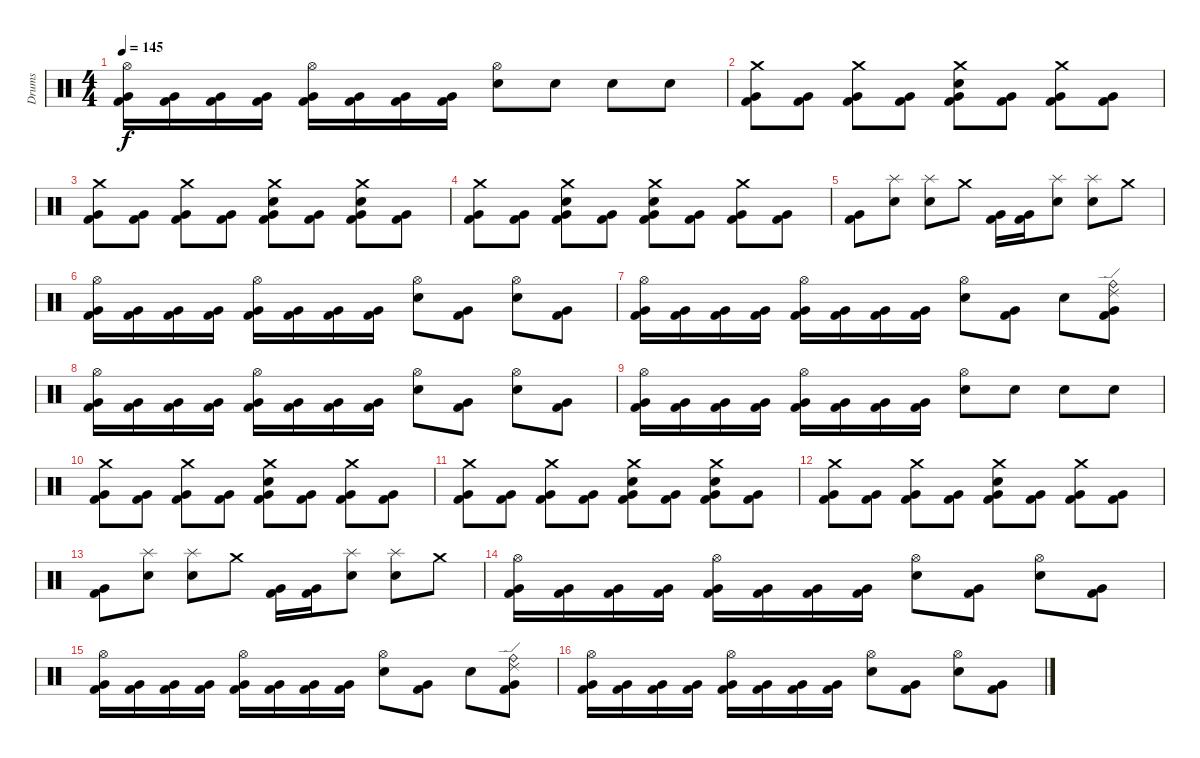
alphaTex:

\track ("Drums" "Drums") {instrument percussion}
\staff {score}
\articulation defaults
\ts (4 4)
\tempo 145
\clef neutral
\ks c
("Hi-Hat (open)" "Very Low Tom (hit)" "Kick (hit) 2").16{dy f} ("Very Low Tom (hit)" "Kick (hit) 2").16 ("Very Low Tom (hit)" "Kick (hit) 2").16 ("Very Low Tom (hit)" "Kick (hit) 2").16 ("Hi-Hat (open)" "Very Low Tom (hit)" "Kick (hit) 2").16 ("Very Low Tom (hit)" "Kick (hit) 2").16 ("Very Low Tom (hit)" "Kick (hit) 2").16 ("Very Low Tom (hit)" "Kick (hit) 2").16 ("Hi-Hat (open)" "Snare (hit) 2").8 "Snare (hit) 2".8 "Snare (hit) 2".8 "Snare (hit) 2".8 |
("Crash medium (hit)" "Very Low Tom (hit)" "Kick (hit) 2").8 ("Very Low Tom (hit)" "Kick (hit) 2").8 ("Crash medium (hit)" "Very Low Tom (hit)" "Kick (hit) 2").8 ("Very Low Tom (hit)" "Kick (hit) 2").8 ("Crash medium (hit)" "Snare (hit) 2" "Very Low Tom (hit)" "Kick (hit) 2").8 ("Very Low Tom (hit)" "Kick (hit) 2").8 ("Crash medium (hit)" "Very Low Tom (hit)" "Kick (hit) 2").8 ("Very Low Tom (hit)" "Kick (hit) 2").8 |
("Crash medium (hit)" "Very Low Tom (hit)" "Kick (hit) 2").8 ("Very Low Tom (hit)" "Kick (hit) 2").8 ("Crash medium (hit)" "Very Low Tom (hit)" "Kick (hit) 2").8 ("Very Low Tom (hit)" "Kick (hit) 2").8 ("Crash medium (hit)" "Snare (hit) 2" "Very Low Tom (hit)" "Kick (hit) 2").8 ("Very Low Tom (hit)" "Kick (hit) 2").8 ("Crash medium (hit)" "Snare (hit) 2" "Very Low Tom (hit)" "Kick (hit) 2").8 ("Very Low Tom (hit)" "Kick (hit) 2").8 |
("Crash medium (hit)" "Very Low Tom (hit)" "Kick (hit) 2").8 ("Very Low Tom (hit)" "Kick (hit) 2").8 ("Crash medium (hit)" "Snare (hit) 2" "Very Low Tom (hit)" "Kick (hit) 2").8 ("Very Low Tom (hit)" "Kick (hit) 2").8 ("Crash medium (hit)" "Snare (hit) 2" "Very Low Tom (hit)" "Kick (hit) 2").8 ("Very Low Tom (hit)" "Kick (hit) 2").8 ("Crash medium (hit)" "Very Low Tom (hit)" "Kick (hit) 2").8 ("Very Low Tom (hit)" "Kick (hit) 2").8 |
("Very Low Tom (hit)" "Kick (hit) 2").8 ("Splash (hit)" "Snare (hit) 2").8 ("Splash (hit)" "Snare (hit) 2").8 "Crash medium (hit)".8 ("Very Low Tom (hit)" "Kick (hit) 2").16 ("Very Low Tom (hit)" "Kick (hit) 2").16 ("Splash (hit)" "Snare (hit) 2").8 ("Splash (hit)" "Snare (hit) 2").8 "Crash medium (hit)".8 |
("Hi-Hat (open)" "Very Low Tom (hit)" "Kick (hit) 2").16 ("Very Low Tom (hit)" "Kick (hit) 2").16 ("Very Low Tom (hit)" "Kick (hit) 2").16 ("Very Low Tom (hit)" "Kick (hit) 2").16 ("Hi-Hat (open)" "Very Low Tom (hit)" "Kick (hit) 2").16 ("Very Low Tom (hit)" "Kick (hit) 2").16 ("Very Low Tom (hit)" "Kick (hit) 2").16 ("Very Low Tom (hit)" "Kick (hit) 2").16 ("Hi-Hat (open)" "Snare (hit) 2").8 ("Very Low Tom (hit)" "Kick (hit) 2").8 ("Hi-Hat (open)" "Snare (hit) 2").8 ("Very Low Tom (hit)" "Kick (hit) 2").8 |
("Hi-Hat (open)" "Very Low Tom (hit)" "Kick (hit) 2").16 ("Very Low Tom (hit)" "Kick (hit) 2").16 ("Very Low Tom (hit)" "Kick (hit) 2").16 ("Very Low Tom (hit)" "Kick (hit) 2").16 ("Hi-Hat (open)" "Very Low Tom (hit)" "Kick (hit) 2").16 ("Very Low Tom (hit)" "Kick (hit) 2").16 ("Very Low Tom (hit)" "Kick (hit) 2").16 ("Very Low Tom (hit)" "Kick (hit) 2").16 ("Hi-Hat (open)" "Snare (hit) 2").8 ("Very Low Tom (hit)" "Kick (hit) 2").8 "Snare (hit) 2".8 ("Ride (bell)" "Ride (edge) 2" "Very Low Tom (hit)" "Kick (hit) 2").8 |
("Hi-Hat (open)" "Very Low Tom (hit)" "Kick (hit) 2").16 ("Very Low Tom (hit)" "Kick (hit) 2").16 ("Very Low Tom (hit)" "Kick (hit) 2").16 ("Very Low Tom (hit)" "Kick (hit) 2").16 ("Hi-Hat (open)" "Very Low Tom (hit)" "Kick (hit) 2").16 ("Very Low Tom (hit)" "Kick (hit) 2").16 ("Very Low Tom (hit)" "Kick (hit) 2").16 ("Very Low Tom (hit)" "Kick (hit) 2").16 ("Hi-Hat (open)" "Snare (hit) 2").8 ("Very Low Tom (hit)" "Kick (hit) 2").8 ("Hi-Hat (open)" "Snare (hit) 2").8 ("Very Low Tom (hit)" "Kick (hit) 2").8 |
("Hi-Hat (open)" "Very Low Tom (hit)" "Kick (hit) 2").16 ("Very Low Tom (hit)" "Kick (hit) 2").16 ("Very Low Tom (hit)" "Kick (hit) 2").16 ("Very Low Tom (hit)" "Kick (hit) 2").16 ("Hi-Hat (open)" "Very Low Tom (hit)" "Kick (hit) 2").16 ("Very Low Tom (hit)" "Kick (hit) 2").16 ("Very Low Tom (hit)" "Kick (hit) 2").16 ("Very Low Tom (hit)" "Kick (hit) 2").16 ("Hi-Hat (open)" "Snare (hit) 2").8 "Snare (hit) 2".8 "Snare (hit) 2".8 "Snare (hit) 2".8 |
("Crash medium (hit)" "Very Low Tom (hit)" "Kick (hit) 2").8 ("Very Low Tom (hit)" "Kick (hit) 2").8 ("Crash medium (hit)" "Very Low Tom (hit)" "Kick (hit) 2").8 ("Very Low Tom (hit)" "Kick (hit) 2").8 ("Crash medium (hit)" "Snare (hit) 2" "Very Low Tom (hit)" "Kick (hit) 2").8 ("Very Low Tom (hit)" "Kick (hit) 2").8 ("Crash medium (hit)" "Very Low Tom (hit)" "Kick (hit) 2").8 ("Very Low Tom (hit)" "Kick (hit) 2").8 |
("Crash medium (hit)" "Very Low Tom (hit)" "Kick (hit) 2").8 ("Very Low Tom (hit)" "Kick (hit) 2").8 ("Crash medium (hit)" "Very Low Tom (hit)" "Kick (hit) 2").8 ("Very Low Tom (hit)" "Kick (hit) 2").8 ("Crash medium (hit)" "Snare (hit) 2" "Very Low Tom (hit)" "Kick (hit) 2").8 ("Very Low Tom (hit)" "Kick (hit) 2").8 ("Crash medium (hit)" "Snare (hit) 2" "Very Low Tom (hit)" "Kick (hit) 2").8 ("Very Low Tom (hit)" "Kick (hit) 2").8 |
("Crash medium (hit)" "Very Low Tom (hit)" "Kick (hit) 2").8 ("Very Low Tom (hit)" "Kick (hit) 2").8 ("Crash medium (hit)" "Very Low Tom (hit)" "Kick (hit) 2").8 ("Very Low Tom (hit)" "Kick (hit) 2").8 ("Crash medium (hit)" "Snare (hit) 2" "Very Low Tom (hit)" "Kick (hit) 2").8 ("Very Low Tom (hit)" "Kick (hit) 2").8 ("Crash medium (hit)" "Very Low Tom (hit)" "Kick (hit) 2").8 ("Very Low Tom (hit)" "Kick (hit) 2").8 |
("Very Low Tom (hit)" "Kick (hit) 2").8 ("Splash (hit)" "Snare (hit) 2").8 ("Splash (hit)" "Snare (hit) 2").8 "Crash medium (hit)".8 ("Very Low Tom (hit)" "Kick (hit) 2").16 ("Very Low Tom (hit)" "Kick (hit) 2").16 ("Splash (hit)" "Snare (hit) 2").8 ("Splash (hit)" "Snare (hit) 2").8 "Crash medium (hit)".8 |
("Hi-Hat (open)" "Very Low Tom (hit)" "Kick (hit) 2").16 ("Very Low Tom (hit)" "Kick (hit) 2").16 ("Very Low Tom (hit)" "Kick (hit) 2").16 ("Very Low Tom (hit)" "Kick (hit) 2").16 ("Hi-Hat (open)" "Very Low Tom (hit)" "Kick (hit) 2").16 ("Very Low Tom (hit)" "Kick (hit) 2").16 ("Very Low Tom (hit)" "Kick (hit) 2").16 ("Very Low Tom (hit)" "Kick (hit) 2").16 ("Hi-Hat (open)" "Snare (hit) 2").8 ("Very Low Tom (hit)" "Kick (hit) 2").8 ("Hi-Hat (open)" "Snare (hit) 2").8 ("Very Low Tom (hit)" "Kick (hit) 2").8 |
("Hi-Hat (open)" "Very Low Tom (hit)" "Kick (hit) 2").16 ("Very Low Tom (hit)" "Kick (hit) 2").16 ("Very Low Tom (hit)" "Kick (hit) 2").16 ("Very Low Tom (hit)" "Kick (hit) 2").16 ("Hi-Hat (open)" "Very Low Tom (hit)" "Kick (hit) 2").16 ("Very Low Tom (hit)" "Kick (hit) 2").16 ("Very Low Tom (hit)" "Kick (hit) 2").16 ("Very Low Tom (hit)" "Kick (hit) 2").16 ("Hi-Hat (open)" "Snare (hit) 2").8 ("Very Low Tom (hit)" "Kick (hit) 2").8 "Snare (hit) 2".8 ("Ride (bell)" "Ride (edge) 2" "Very Low Tom (hit)" "Kick (hit) 2").8 |
("Hi-Hat (open)" "Very Low Tom (hit)" "Kick (hit) 2").16 ("Very Low Tom (hit)" "Kick (hit) 2").16 ("Very Low Tom (hit)" "Kick (hit) 2").16 ("Very Low Tom (hit)" "Kick (hit) 2").16 ("Hi-Hat (open)" "Very Low Tom (hit)" "Kick (hit) 2").16 ("Very Low Tom (hit)" "Kick (hit) 2").16 ("Very Low Tom (hit)" "Kick (hit) 2").16 ("Very Low Tom (hit)" "Kick (hit) 2").16 ("Hi-Hat (open)" "Snare (hit) 2").8 ("Very Low Tom (hit)" "Kick (hit) 2").8 ("Hi-Hat (open)" "Snare (hit) 2").8 ("Very Low Tom (hit)" "Kick (hit) 2").8
